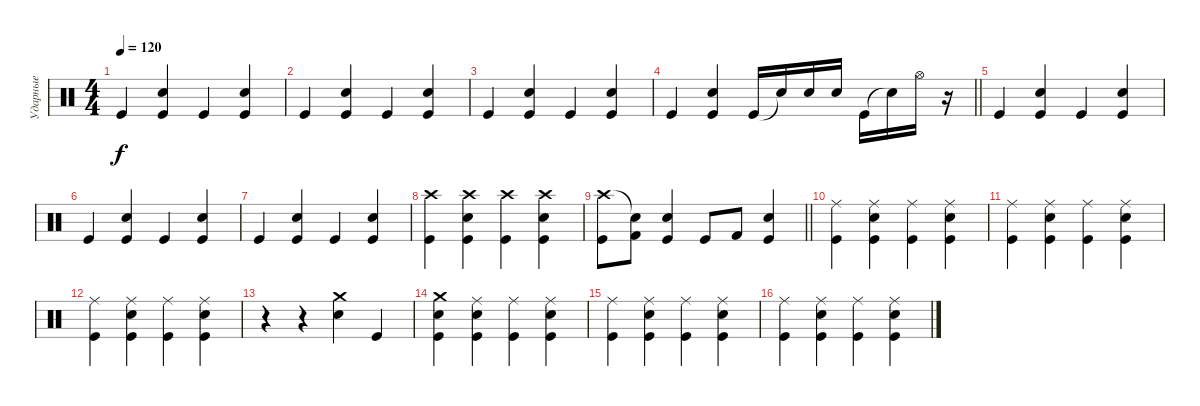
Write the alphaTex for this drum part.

\track ("Ударные" "Ударные") {instrument percussion}
\staff {score}
\articulation defaults
\ts (4 4)
\tempo 120
\clef neutral
\ks c "Kick (hit)".4{dy f}
("Kick (hit)" "Snare (hit) 2").4 "Kick (hit)".4 ("Kick (hit)" "Snare (hit) 2").4 |
"Kick (hit)".4 ("Kick (hit)" "Snare (hit) 2").4 "Kick (hit)".4 ("Kick (hit)" "Snare (hit) 2").4 |
"Kick (hit)".4 ("Kick (hit)" "Snare (hit) 2").4 "Kick (hit)".4 ("Kick (hit)" "Snare (hit) 2").4 |
\barLineRight lightlight "Kick (hit)".4
("Kick (hit)" "Snare (hit) 2").4 "Kick (hit)".16 "Snare (hit) 2"{t}.16 "Snare (hit) 2".16 "Snare (hit) 2".16 "Kick (hit)".16 "Snare (hit)"{t}.16 "Hi-Hat (open)".16 r.16 |
"Kick (hit)".4 ("Kick (hit)" "Snare (hit) 2").4 "Kick (hit)".4 ("Kick (hit)" "Snare (hit) 2").4 |
"Kick (hit)".4 ("Kick (hit)" "Snare (hit) 2").4 "Kick (hit)".4 ("Kick (hit)" "Snare (hit) 2").4 |
"Kick (hit)".4 ("Kick (hit)" "Snare (hit) 2").4 "Kick (hit)".4 ("Kick (hit)" "Snare (hit) 2").4 |
("Crash high (hit)" "Kick (hit)").4 ("Crash high (hit)" "Kick (hit)" "Snare (hit) 2").4 ("Crash high (hit)" "Kick (hit)").4 ("Crash high (hit)" "Kick (hit)" "Snare (hit) 2").4 |
\barLineRight lightlight
("Crash high (hit)" "Kick (hit)").8 ("Snare (hit)"{t} "Kick (hit) 2").8 ("Kick (hit)" "Snare (hit) 2").4 "Kick (hit)".8 "Kick (hit) 2".8 ("Kick (hit)" "Snare (hit) 2").4 |
("Ride (middle)" "Kick (hit)").4 ("Ride (middle)" "Kick (hit)" "Snare (hit) 2").4 ("Ride (middle)" "Kick (hit)").4 ("Ride (middle)" "Kick (hit)" "Snare (hit) 2").4 |
("Ride (middle)" "Kick (hit)").4 ("Ride (middle)" "Kick (hit)" "Snare (hit) 2").4 ("Ride (middle)" "Kick (hit)").4 ("Ride (middle)" "Kick (hit)" "Snare (hit) 2").4 |
("Ride (middle)" "Kick (hit)").4 ("Ride (middle)" "Kick (hit)" "Snare (hit) 2").4 ("Ride (middle)" "Kick (hit)").4 ("Ride (middle)" "Kick (hit)" "Snare (hit) 2").4 |
r.4 r.4 ("Crash medium (hit)" "Snare (hit) 2").4 "Kick (hit)".4 |
("Crash medium (hit)" "Snare (hit) 2" "Kick (hit)").4 ("Ride (middle)" "Kick (hit)" "Snare (hit) 2").4 ("Ride (middle)" "Kick (hit)").4 ("Ride (middle)" "Kick (hit)" "Snare (hit) 2").4 |
("Ride (middle)" "Kick (hit)").4 ("Ride (middle)" "Kick (hit)" "Snare (hit) 2").4 ("Ride (middle)" "Kick (hit)").4 ("Ride (middle)" "Kick (hit)" "Snare (hit) 2").4 |
("Ride (middle)" "Kick (hit)").4 ("Ride (middle)" "Kick (hit)" "Snare (hit) 2").4 ("Ride (middle)" "Kick (hit)").4 ("Ride (middle)" "Kick (hit)" "Snare (hit) 2").4
